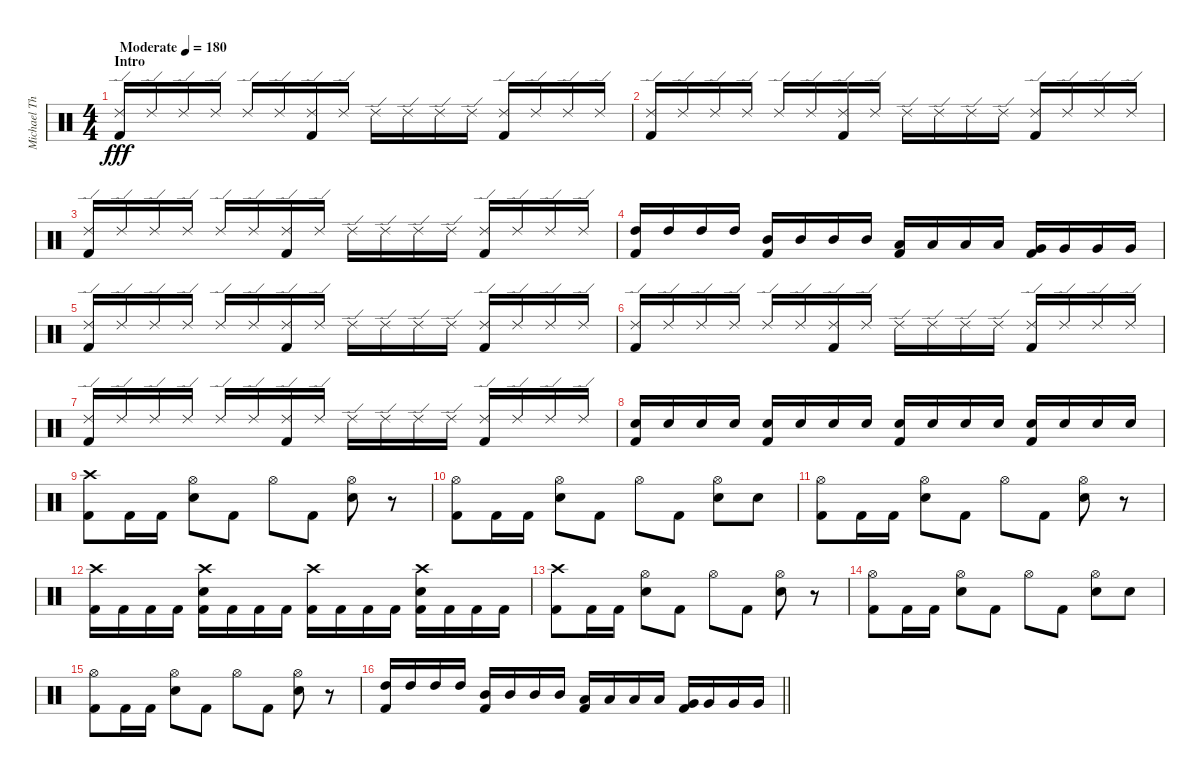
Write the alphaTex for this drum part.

\track ("Michael Thomas" "Michael Th") {instrument percussion}
\staff {score}
\articulation defaults
\ts (4 4)
\section ("" "Intro")
\tempo (180 "Moderate")
\clef neutral
\ks c
("Ride (edge) 2" "Kick (hit) 2").16{dy fff} "Ride (edge) 2".16 "Ride (edge) 2".16 "Ride (edge) 2".16 "Ride (edge) 2".16 "Ride (edge) 2".16 ("Ride (edge) 2" "Kick (hit) 2").16 "Ride (edge) 2".16 "Ride (edge) 2".16 "Ride (edge) 2".16 "Ride (edge) 2".16 "Ride (edge) 2".16 ("Ride (edge) 2" "Kick (hit) 2").16 "Ride (edge) 2".16 "Ride (edge) 2".16 "Ride (edge) 2".16 |
("Ride (edge) 2" "Kick (hit) 2").16 "Ride (edge) 2".16 "Ride (edge) 2".16 "Ride (edge) 2".16 "Ride (edge) 2".16 "Ride (edge) 2".16 ("Ride (edge) 2" "Kick (hit) 2").16 "Ride (edge) 2".16 "Ride (edge) 2".16 "Ride (edge) 2".16 "Ride (edge) 2".16 "Ride (edge) 2".16 ("Ride (edge) 2" "Kick (hit) 2").16 "Ride (edge) 2".16 "Ride (edge) 2".16 "Ride (edge) 2".16 |
("Ride (edge) 2" "Kick (hit) 2").16 "Ride (edge) 2".16 "Ride (edge) 2".16 "Ride (edge) 2".16 "Ride (edge) 2".16 "Ride (edge) 2".16 ("Ride (edge) 2" "Kick (hit) 2").16 "Ride (edge) 2".16 "Ride (edge) 2".16 "Ride (edge) 2".16 "Ride (edge) 2".16 "Ride (edge) 2".16 ("Ride (edge) 2" "Kick (hit) 2").16 "Ride (edge) 2".16 "Ride (edge) 2".16 "Ride (edge) 2".16 |
("High Tom (hit)" "Kick (hit) 2").16 "High Tom (hit)".16 "High Tom (hit)".16 "High Tom (hit)".16 ("Mid Tom (hit)" "Kick (hit) 2").16 "Mid Tom (hit)".16 "Mid Tom (hit)".16 "Mid Tom (hit)".16 ("Low Tom (hit)" "Kick (hit) 2").16 "Low Tom (hit)".16 "Low Tom (hit)".16 "Low Tom (hit)".16 ("Very Low Tom (hit)" "Kick (hit) 2").16 "Very Low Tom (hit)".16 "Very Low Tom (hit)".16 "Very Low Tom (hit)".16 |
("Ride (edge) 2" "Kick (hit) 2").16 "Ride (edge) 2".16 "Ride (edge) 2".16 "Ride (edge) 2".16 "Ride (edge) 2".16 "Ride (edge) 2".16 ("Ride (edge) 2" "Kick (hit) 2").16 "Ride (edge) 2".16 "Ride (edge) 2".16 "Ride (edge) 2".16 "Ride (edge) 2".16 "Ride (edge) 2".16 ("Ride (edge) 2" "Kick (hit) 2").16 "Ride (edge) 2".16 "Ride (edge) 2".16 "Ride (edge) 2".16 |
("Ride (edge) 2" "Kick (hit) 2").16 "Ride (edge) 2".16 "Ride (edge) 2".16 "Ride (edge) 2".16 "Ride (edge) 2".16 "Ride (edge) 2".16 ("Ride (edge) 2" "Kick (hit) 2").16 "Ride (edge) 2".16 "Ride (edge) 2".16 "Ride (edge) 2".16 "Ride (edge) 2".16 "Ride (edge) 2".16 ("Ride (edge) 2" "Kick (hit) 2").16 "Ride (edge) 2".16 "Ride (edge) 2".16 "Ride (edge) 2".16 |
("Ride (edge) 2" "Kick (hit) 2").16 "Ride (edge) 2".16 "Ride (edge) 2".16 "Ride (edge) 2".16 "Ride (edge) 2".16 "Ride (edge) 2".16 ("Ride (edge) 2" "Kick (hit) 2").16 "Ride (edge) 2".16 "Ride (edge) 2".16 "Ride (edge) 2".16 "Ride (edge) 2".16 "Ride (edge) 2".16 ("Ride (edge) 2" "Kick (hit) 2").16 "Ride (edge) 2".16 "Ride (edge) 2".16 "Ride (edge) 2".16 |
("Electric Snare (hit)" "Kick (hit) 2").16 "Electric Snare (hit)".16 "Electric Snare (hit)".16 "Electric Snare (hit)".16 ("Electric Snare (hit)" "Kick (hit) 2").16 "Electric Snare (hit)".16 "Electric Snare (hit)".16 "Electric Snare (hit)".16 ("Electric Snare (hit)" "Kick (hit) 2").16 "Electric Snare (hit)".16 "Electric Snare (hit)".16 "Electric Snare (hit)".16 ("Electric Snare (hit)" "Kick (hit) 2").16 "Electric Snare (hit)".16 "Electric Snare (hit)".16 "Electric Snare (hit)".16 |
("Crash high (hit)" "Kick (hit) 2").8 "Kick (hit) 2".16 "Kick (hit) 2".16 ("Hi-Hat (open)" "Electric Snare (hit)").8 "Kick (hit) 2".8 "Hi-Hat (open)".8 "Kick (hit) 2".8 ("Hi-Hat (open)" "Electric Snare (hit)").8 r.8 |
("Hi-Hat (open)" "Kick (hit) 2").8 "Kick (hit) 2".16 "Kick (hit) 2".16 ("Hi-Hat (open)" "Electric Snare (hit)").8 "Kick (hit) 2".8 "Hi-Hat (open)".8 "Kick (hit) 2".8 ("Hi-Hat (open)" "Electric Snare (hit)").8 "Electric Snare (hit)".8 |
("Hi-Hat (open)" "Kick (hit) 2").8 "Kick (hit) 2".16 "Kick (hit) 2".16 ("Hi-Hat (open)" "Electric Snare (hit)").8 "Kick (hit) 2".8 "Hi-Hat (open)".8 "Kick (hit) 2".8 ("Hi-Hat (open)" "Electric Snare (hit)").8 r.8 |
("Crash high (hit)" "Kick (hit) 2").16 "Kick (hit) 2".16 "Kick (hit) 2".16 "Kick (hit) 2".16 ("Crash high (hit)" "Electric Snare (hit)" "Kick (hit) 2").16 "Kick (hit) 2".16 "Kick (hit) 2".16 "Kick (hit) 2".16 ("Crash high (hit)" "Kick (hit) 2").16 "Kick (hit) 2".16 "Kick (hit) 2".16 "Kick (hit) 2".16 ("Crash high (hit)" "Electric Snare (hit)" "Kick (hit) 2").16 "Kick (hit) 2".16 "Kick (hit) 2".16 "Kick (hit) 2".16 |
("Crash high (hit)" "Kick (hit) 2").8 "Kick (hit) 2".16 "Kick (hit) 2".16 ("Hi-Hat (open)" "Electric Snare (hit)").8 "Kick (hit) 2".8 "Hi-Hat (open)".8 "Kick (hit) 2".8 ("Hi-Hat (open)" "Electric Snare (hit)").8 r.8 |
("Hi-Hat (open)" "Kick (hit) 2").8 "Kick (hit) 2".16 "Kick (hit) 2".16 ("Hi-Hat (open)" "Electric Snare (hit)").8 "Kick (hit) 2".8 "Hi-Hat (open)".8 "Kick (hit) 2".8 ("Hi-Hat (open)" "Electric Snare (hit)").8 "Electric Snare (hit)".8 |
("Hi-Hat (open)" "Kick (hit) 2").8 "Kick (hit) 2".16 "Kick (hit) 2".16 ("Hi-Hat (open)" "Electric Snare (hit)").8 "Kick (hit) 2".8 "Hi-Hat (open)".8 "Kick (hit) 2".8 ("Hi-Hat (open)" "Electric Snare (hit)").8 r.8 |
\barLineRight lightlight
("High Tom (hit)" "Kick (hit) 2").16 "High Tom (hit)".16 "High Tom (hit)".16 "High Tom (hit)".16 ("Mid Tom (hit)" "Kick (hit) 2").16 "Mid Tom (hit)".16 "Mid Tom (hit)".16 "Mid Tom (hit)".16 ("Low Tom (hit)" "Kick (hit) 2").16 "Low Tom (hit)".16 "Low Tom (hit)".16 "Low Tom (hit)".16 ("Very Low Tom (hit)" "Kick (hit) 2").16 "Very Low Tom (hit)".16 "Very Low Tom (hit)".16 "Very Low Tom (hit)".16
